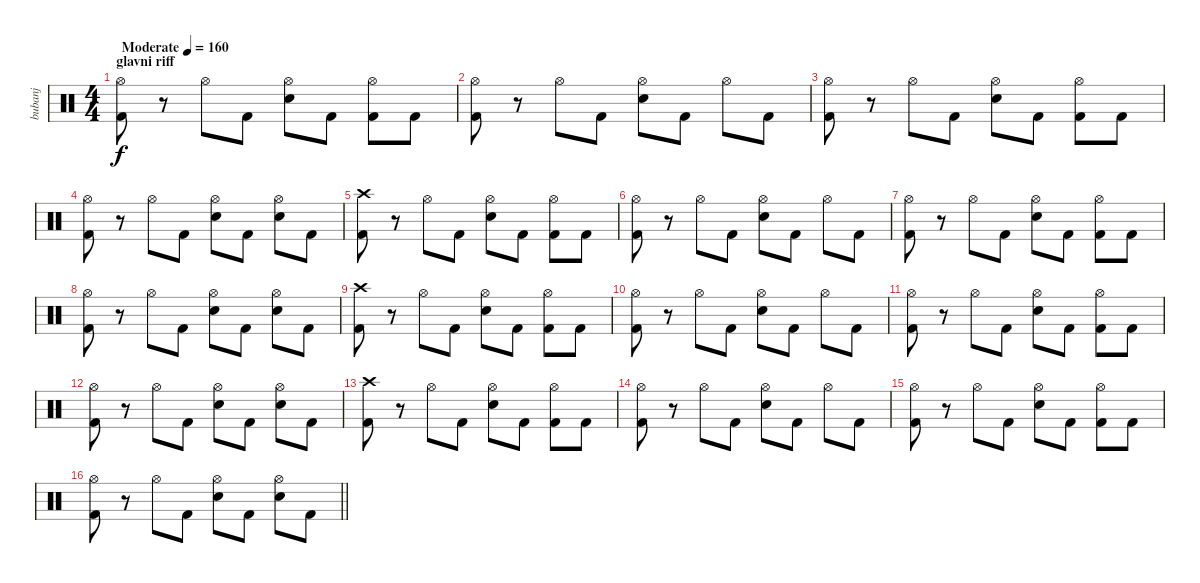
\track ("bubanj" "bubanj") {instrument percussion}
\staff {score}
\articulation defaults
\ts (4 4)
\section ("" "glavni riff")
\tempo (160 "Moderate")
\clef neutral
\ks c
("Hi-Hat (open)" "Kick (hit) 2").8{dy f} r.8 "Hi-Hat (open)".8 "Kick (hit) 2".8 ("Hi-Hat (open)" "Electric Snare (hit)").8 "Kick (hit) 2".8 ("Hi-Hat (open)" "Kick (hit) 2").8 "Kick (hit) 2".8 |
("Hi-Hat (open)" "Kick (hit) 2").8 r.8 "Hi-Hat (open)".8 "Kick (hit) 2".8 ("Hi-Hat (open)" "Electric Snare (hit)").8 "Kick (hit) 2".8 "Hi-Hat (open)".8 "Kick (hit) 2".8 |
("Hi-Hat (open)" "Kick (hit) 2").8 r.8 "Hi-Hat (open)".8 "Kick (hit) 2".8 ("Hi-Hat (open)" "Electric Snare (hit)").8 "Kick (hit) 2".8 ("Hi-Hat (open)" "Kick (hit) 2").8 "Kick (hit) 2".8 |
("Hi-Hat (open)" "Kick (hit) 2").8 r.8 "Hi-Hat (open)".8 "Kick (hit) 2".8 ("Hi-Hat (open)" "Electric Snare (hit)").8 "Kick (hit) 2".8 ("Hi-Hat (open)" "Electric Snare (hit)").8 "Kick (hit) 2".8 |
("Crash high (hit)" "Kick (hit) 2").8 r.8 "Hi-Hat (open)".8 "Kick (hit) 2".8 ("Hi-Hat (open)" "Electric Snare (hit)").8 "Kick (hit) 2".8 ("Hi-Hat (open)" "Kick (hit) 2").8 "Kick (hit) 2".8 |
("Hi-Hat (open)" "Kick (hit) 2").8 r.8 "Hi-Hat (open)".8 "Kick (hit) 2".8 ("Hi-Hat (open)" "Electric Snare (hit)").8 "Kick (hit) 2".8 "Hi-Hat (open)".8 "Kick (hit) 2".8 |
("Hi-Hat (open)" "Kick (hit) 2").8 r.8 "Hi-Hat (open)".8 "Kick (hit) 2".8 ("Hi-Hat (open)" "Electric Snare (hit)").8 "Kick (hit) 2".8 ("Hi-Hat (open)" "Kick (hit) 2").8 "Kick (hit) 2".8 |
("Hi-Hat (open)" "Kick (hit) 2").8 r.8 "Hi-Hat (open)".8 "Kick (hit) 2".8 ("Hi-Hat (open)" "Electric Snare (hit)").8 "Kick (hit) 2".8 ("Hi-Hat (open)" "Electric Snare (hit)").8 "Kick (hit) 2".8 |
("Crash high (hit)" "Kick (hit) 2").8 r.8 "Hi-Hat (open)".8 "Kick (hit) 2".8 ("Hi-Hat (open)" "Electric Snare (hit)").8 "Kick (hit) 2".8 ("Hi-Hat (open)" "Kick (hit) 2").8 "Kick (hit) 2".8 |
("Hi-Hat (open)" "Kick (hit) 2").8 r.8 "Hi-Hat (open)".8 "Kick (hit) 2".8 ("Hi-Hat (open)" "Electric Snare (hit)").8 "Kick (hit) 2".8 "Hi-Hat (open)".8 "Kick (hit) 2".8 |
("Hi-Hat (open)" "Kick (hit) 2").8 r.8 "Hi-Hat (open)".8 "Kick (hit) 2".8 ("Hi-Hat (open)" "Electric Snare (hit)").8 "Kick (hit) 2".8 ("Hi-Hat (open)" "Kick (hit) 2").8 "Kick (hit) 2".8 |
("Hi-Hat (open)" "Kick (hit) 2").8 r.8 "Hi-Hat (open)".8 "Kick (hit) 2".8 ("Hi-Hat (open)" "Electric Snare (hit)").8 "Kick (hit) 2".8 ("Hi-Hat (open)" "Electric Snare (hit)").8 "Kick (hit) 2".8 |
("Crash high (hit)" "Kick (hit) 2").8 r.8 "Hi-Hat (open)".8 "Kick (hit) 2".8 ("Hi-Hat (open)" "Electric Snare (hit)").8 "Kick (hit) 2".8 ("Hi-Hat (open)" "Kick (hit) 2").8 "Kick (hit) 2".8 |
("Hi-Hat (open)" "Kick (hit) 2").8 r.8 "Hi-Hat (open)".8 "Kick (hit) 2".8 ("Hi-Hat (open)" "Electric Snare (hit)").8 "Kick (hit) 2".8 "Hi-Hat (open)".8 "Kick (hit) 2".8 |
("Hi-Hat (open)" "Kick (hit) 2").8 r.8 "Hi-Hat (open)".8 "Kick (hit) 2".8 ("Hi-Hat (open)" "Electric Snare (hit)").8 "Kick (hit) 2".8 ("Hi-Hat (open)" "Kick (hit) 2").8 "Kick (hit) 2".8 |
\barLineRight lightlight
("Hi-Hat (open)" "Kick (hit) 2").8 r.8 "Hi-Hat (open)".8 "Kick (hit) 2".8 ("Hi-Hat (open)" "Electric Snare (hit)").8 "Kick (hit) 2".8 ("Hi-Hat (open)" "Electric Snare (hit)").8 "Kick (hit) 2".8
